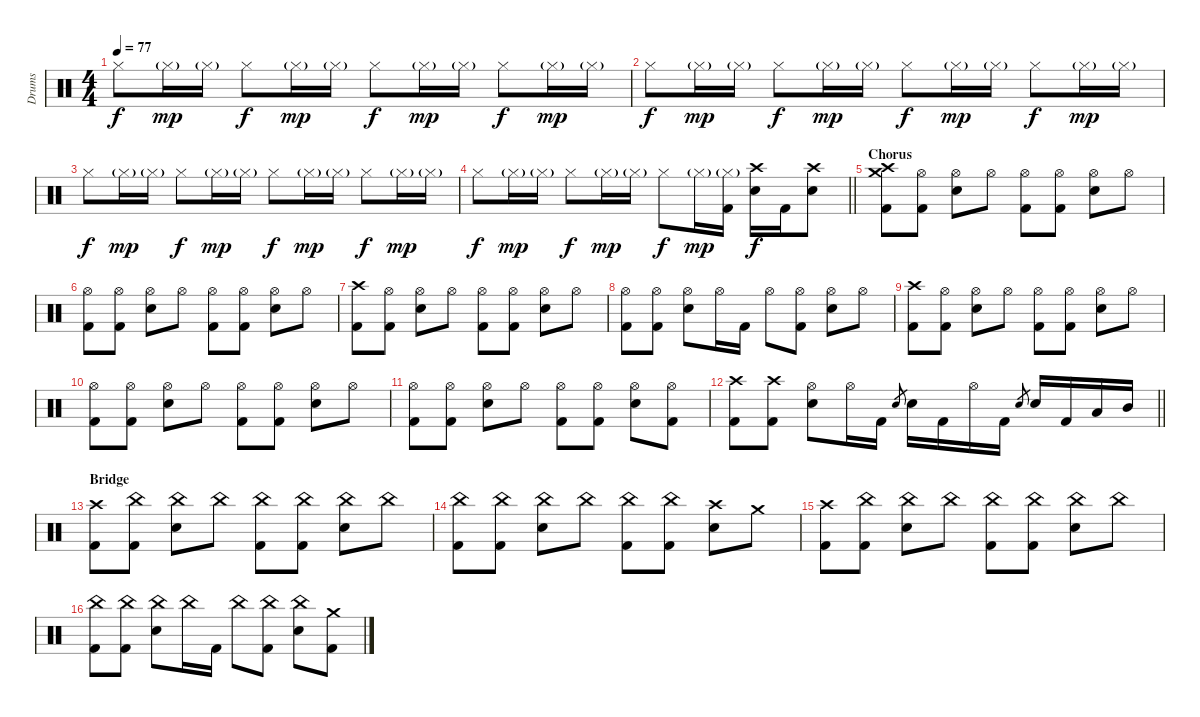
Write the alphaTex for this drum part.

\track ("Drums" "Drums") {instrument percussion}
\staff {score}
\articulation defaults
\ts (4 4)
\tempo 77
\clef neutral
\ks c "Hi-Hat (closed)".8{dy f} "Hi-Hat (closed)"{g}.16{dy mp} "Hi-Hat (closed)"{g}.16 "Hi-Hat (closed)".8{dy f} "Hi-Hat (closed)"{g}.16{dy mp} "Hi-Hat (closed)"{g}.16 "Hi-Hat (closed)".8{dy f} "Hi-Hat (closed)"{g}.16{dy mp} "Hi-Hat (closed)"{g}.16 "Hi-Hat (closed)".8{dy f} "Hi-Hat (closed)"{g}.16{dy mp} "Hi-Hat (closed)"{g}.16
|
"Hi-Hat (closed)".8{dy f} "Hi-Hat (closed)"{g}.16{dy mp} "Hi-Hat (closed)"{g}.16 "Hi-Hat (closed)".8{dy f} "Hi-Hat (closed)"{g}.16{dy mp} "Hi-Hat (closed)"{g}.16 "Hi-Hat (closed)".8{dy f} "Hi-Hat (closed)"{g}.16{dy mp} "Hi-Hat (closed)"{g}.16 "Hi-Hat (closed)".8{dy f} "Hi-Hat (closed)"{g}.16{dy mp} "Hi-Hat (closed)"{g}.16 |
"Hi-Hat (closed)".8{dy f} "Hi-Hat (closed)"{g}.16{dy mp} "Hi-Hat (closed)"{g}.16 "Hi-Hat (closed)".8{dy f} "Hi-Hat (closed)"{g}.16{dy mp} "Hi-Hat (closed)"{g}.16 "Hi-Hat (closed)".8{dy f} "Hi-Hat (closed)"{g}.16{dy mp} "Hi-Hat (closed)"{g}.16 "Hi-Hat (closed)".8{dy f} "Hi-Hat (closed)"{g}.16{dy mp} "Hi-Hat (closed)"{g}.16 |
\barLineRight lightlight "Hi-Hat (closed)".8{dy f} "Hi-Hat (closed)"{g}.16{dy mp} "Hi-Hat (closed)"{g}.16 "Hi-Hat (closed)".8{dy f} "Hi-Hat (closed)"{g}.16{dy mp} "Hi-Hat (closed)"{g}.16 "Hi-Hat (closed)".8{dy f} "Hi-Hat (closed)"{g}.16{dy mp}
("Kick (hit) 2" "Hi-Hat (closed)"{g}).16 ("Electric Snare (hit)" "Crash high (hit)").16{dy f} "Kick (hit) 2".16 ("Electric Snare (hit)" "Crash high (hit)").8 |
\section ("" "Chorus")
("Kick (hit) 2" "Crash medium (hit)" "Crash high (hit)").8 ("Kick (hit) 2" "Hi-Hat (open)").8 ("Electric Snare (hit)" "Hi-Hat (open)").8 "Hi-Hat (open)".8 ("Kick (hit) 2" "Hi-Hat (open)").8 ("Kick (hit) 2" "Hi-Hat (open)").8 ("Electric Snare (hit)" "Hi-Hat (open)").8 "Hi-Hat (open)".8 |
("Kick (hit) 2" "Hi-Hat (open)").8 ("Kick (hit) 2" "Hi-Hat (open)").8 ("Electric Snare (hit)" "Hi-Hat (open)").8 "Hi-Hat (open)".8 ("Kick (hit) 2" "Hi-Hat (open)").8 ("Kick (hit) 2" "Hi-Hat (open)").8 ("Electric Snare (hit)" "Hi-Hat (open)").8 "Hi-Hat (open)".8 |
("Kick (hit) 2" "Crash high (hit)").8 ("Kick (hit) 2" "Hi-Hat (open)").8 ("Electric Snare (hit)" "Hi-Hat (open)").8 "Hi-Hat (open)".8 ("Kick (hit) 2" "Hi-Hat (open)").8 ("Kick (hit) 2" "Hi-Hat (open)").8 ("Electric Snare (hit)" "Hi-Hat (open)").8 "Hi-Hat (open)".8 |
("Kick (hit) 2" "Hi-Hat (open)").8 ("Kick (hit) 2" "Hi-Hat (open)").8 ("Electric Snare (hit)" "Hi-Hat (open)").8 "Hi-Hat (open)".16 "Kick (hit) 2".16 "Hi-Hat (open)".8 ("Kick (hit) 2" "Hi-Hat (open)").8 ("Electric Snare (hit)" "Hi-Hat (open)").8 "Hi-Hat (open)".8 |
("Kick (hit) 2" "Crash high (hit)").8 ("Kick (hit) 2" "Hi-Hat (open)").8 ("Electric Snare (hit)" "Hi-Hat (open)").8 "Hi-Hat (open)".8 ("Kick (hit) 2" "Hi-Hat (open)").8 ("Kick (hit) 2" "Hi-Hat (open)").8 ("Electric Snare (hit)" "Hi-Hat (open)").8 "Hi-Hat (open)".8 |
("Kick (hit) 2" "Hi-Hat (open)").8 ("Kick (hit) 2" "Hi-Hat (open)").8 ("Electric Snare (hit)" "Hi-Hat (open)").8 "Hi-Hat (open)".8 ("Kick (hit) 2" "Hi-Hat (open)").8 ("Kick (hit) 2" "Hi-Hat (open)").8 ("Electric Snare (hit)" "Hi-Hat (open)").8 "Hi-Hat (open)".8 |
("Kick (hit) 2" "Hi-Hat (open)").8 ("Kick (hit) 2" "Hi-Hat (open)").8 ("Electric Snare (hit)" "Hi-Hat (open)").8 "Hi-Hat (open)".8 ("Kick (hit) 2" "Hi-Hat (open)").8 ("Kick (hit) 2" "Hi-Hat (open)").8 ("Electric Snare (hit)" "Hi-Hat (open)").8 ("Kick (hit) 2" "Hi-Hat (open)").8 |
\barLineRight lightlight
("Kick (hit) 2" "Crash high (hit)").8 ("Kick (hit) 2" "Crash high (hit)").8 ("Electric Snare (hit)" "Hi-Hat (open)").8 "Hi-Hat (open)".16 "Kick (hit) 2".16 "Electric Snare (hit)".8{gr} "Electric Snare (hit)".16 "Kick (hit) 2".16 "Hi-Hat (open)".16 "Kick (hit) 2".16 "Electric Snare (hit)".8{gr} "Electric Snare (hit)".16 "Kick (hit) 2".16 "Low Tom (hit)".16 "Mid Tom (hit)".16 |
\section ("" "Bridge")
("Kick (hit) 2" "Crash high (hit)").8 ("Kick (hit) 2" "China (hit)").8 ("Electric Snare (hit)" "China (hit)").8 "China (hit)".8 ("Kick (hit) 2" "China (hit)").8 ("Kick (hit) 2" "China (hit)").8 ("Electric Snare (hit)" "China (hit)").8 "China (hit)".8 |
("Kick (hit) 2" "China (hit)").8 ("Kick (hit) 2" "China (hit)").8 ("Electric Snare (hit)" "China (hit)").8 "China (hit)".8 ("Kick (hit) 2" "China (hit)").8 ("Kick (hit) 2" "China (hit)").8 ("Electric Snare (hit)" "Crash high (hit)").8 "Crash medium (hit)".8 |
("Kick (hit) 2" "Crash high (hit)").8 ("Kick (hit) 2" "China (hit)").8 ("Electric Snare (hit)" "China (hit)").8 "China (hit)".8 ("Kick (hit) 2" "China (hit)").8 ("Kick (hit) 2" "China (hit)").8 ("Electric Snare (hit)" "China (hit)").8 "China (hit)".8 |
("Kick (hit) 2" "China (hit)").8 ("Kick (hit) 2" "China (hit)").8 ("Electric Snare (hit)" "China (hit)").8 "China (hit)".16 "Kick (hit) 2".16 "China (hit)".8 ("Kick (hit) 2" "China (hit)").8 ("Electric Snare (hit)" "China (hit)").8 ("Kick (hit) 2" "Crash medium (hit)").8
